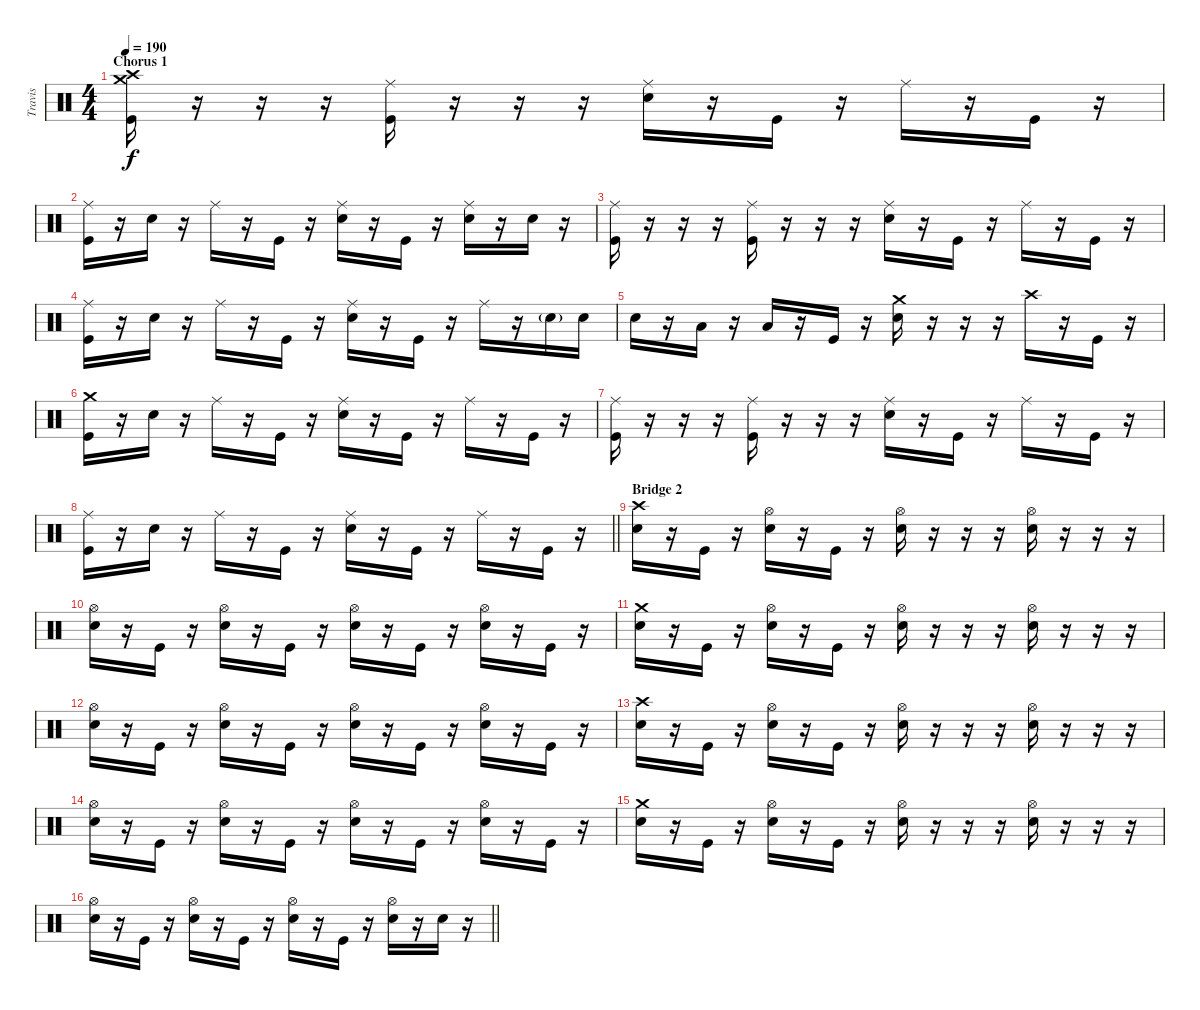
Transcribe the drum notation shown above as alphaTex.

\track ("Travis" "Travis") {instrument percussion}
\staff {score}
\articulation defaults
\ts (4 4)
\section ("" "Chorus 1")
\tempo 190
\clef neutral
\ks c
("Crash medium (hit)" "Crash high (hit)" "Kick (hit)").16{dy f} r.16 r.16 r.16 ("Ride (middle)" "Kick (hit)").16 r.16 r.16 r.16 ("Ride (middle)" "Snare (hit) 2").16 r.16 "Kick (hit)".16 r.16 "Ride (middle)".16 r.16 "Kick (hit)".16 r.16 |
("Ride (middle)" "Kick (hit)").16 r.16 "Snare (hit) 2".16 r.16 "Ride (middle)".16 r.16 "Kick (hit)".16 r.16 ("Ride (middle)" "Snare (hit) 2").16 r.16 "Kick (hit)".16 r.16 ("Ride (middle)" "Snare (hit) 2").16 r.16 "Snare (hit) 2".16 r.16 |
("Ride (middle)" "Kick (hit)").16 r.16 r.16 r.16 ("Ride (middle)" "Kick (hit)").16 r.16 r.16 r.16 ("Ride (middle)" "Snare (hit) 2").16 r.16 "Kick (hit)".16 r.16 "Ride (middle)".16 r.16 "Kick (hit)".16 r.16 |
("Ride (middle)" "Kick (hit)").16 r.16 "Snare (hit) 2".16 r.16 "Ride (middle)".16 r.16 "Kick (hit)".16 r.16 ("Ride (middle)" "Snare (hit) 2").16 r.16 "Kick (hit)".16 r.16 "Ride (middle)".16 r.16 "Snare (hit) 2"{g}.16 "Snare (hit) 2".16 |
"Snare (hit) 2".16 r.16 "Low Tom (hit)".16 r.16 "Low Floor Tom (hit)".16 r.16 "Kick (hit)".16 r.16 ("Crash medium (hit)" "Snare (hit) 2").16 r.16 r.16 r.16 "Crash high (hit)".16 r.16 "Kick (hit)".16 r.16 |
("Crash medium (hit)" "Kick (hit)").16 r.16 "Snare (hit) 2".16 r.16 "Ride (middle)".16 r.16 "Kick (hit)".16 r.16 ("Ride (middle)" "Snare (hit) 2").16 r.16 "Kick (hit)".16 r.16 "Ride (middle)".16 r.16 "Kick (hit)".16 r.16 |
("Ride (middle)" "Kick (hit)").16 r.16 r.16 r.16 ("Ride (middle)" "Kick (hit)").16 r.16 r.16 r.16 ("Ride (middle)" "Snare (hit) 2").16 r.16 "Kick (hit)".16 r.16 "Ride (middle)".16 r.16 "Kick (hit)".16 r.16 |
\barLineRight lightlight
("Ride (middle)" "Kick (hit)").16 r.16 "Snare (hit) 2".16 r.16 "Ride (middle)".16 r.16 "Kick (hit)".16 r.16 ("Ride (middle)" "Snare (hit) 2").16 r.16 "Kick (hit)".16 r.16 "Ride (middle)".16 r.16 "Kick (hit)".16 r.16 |
\section ("" "Bridge 2")
("Crash high (hit)" "Snare (hit) 2").16 r.16 "Kick (hit)".16 r.16 ("Hi-Hat (open)" "Snare (hit) 2").16 r.16 "Kick (hit)".16 r.16 ("Hi-Hat (open)" "Snare (hit) 2").16 r.16 r.16 r.16 ("Hi-Hat (open)" "Snare (hit) 2").16 r.16 r.16 r.16 |
("Hi-Hat (open)" "Snare (hit) 2").16 r.16 "Kick (hit)".16 r.16 ("Hi-Hat (open)" "Snare (hit) 2").16 r.16 "Kick (hit)".16 r.16 ("Hi-Hat (open)" "Snare (hit) 2").16 r.16 "Kick (hit)".16 r.16 ("Hi-Hat (open)" "Snare (hit) 2").16 r.16 "Kick (hit)".16 r.16 |
("Crash medium (hit)" "Snare (hit) 2").16 r.16 "Kick (hit)".16 r.16 ("Hi-Hat (open)" "Snare (hit) 2").16 r.16 "Kick (hit)".16 r.16 ("Hi-Hat (open)" "Snare (hit) 2").16 r.16 r.16 r.16 ("Hi-Hat (open)" "Snare (hit) 2").16 r.16 r.16 r.16 |
("Hi-Hat (open)" "Snare (hit) 2").16 r.16 "Kick (hit)".16 r.16 ("Hi-Hat (open)" "Snare (hit) 2").16 r.16 "Kick (hit)".16 r.16 ("Hi-Hat (open)" "Snare (hit) 2").16 r.16 "Kick (hit)".16 r.16 ("Hi-Hat (open)" "Snare (hit) 2").16 r.16 "Kick (hit)".16 r.16 |
("Crash high (hit)" "Snare (hit) 2").16 r.16 "Kick (hit)".16 r.16 ("Hi-Hat (open)" "Snare (hit) 2").16 r.16 "Kick (hit)".16 r.16 ("Hi-Hat (open)" "Snare (hit) 2").16 r.16 r.16 r.16 ("Hi-Hat (open)" "Snare (hit) 2").16 r.16 r.16 r.16 |
("Hi-Hat (open)" "Snare (hit) 2").16 r.16 "Kick (hit)".16 r.16 ("Hi-Hat (open)" "Snare (hit) 2").16 r.16 "Kick (hit)".16 r.16 ("Hi-Hat (open)" "Snare (hit) 2").16 r.16 "Kick (hit)".16 r.16 ("Hi-Hat (open)" "Snare (hit) 2").16 r.16 "Kick (hit)".16 r.16 |
("Crash medium (hit)" "Snare (hit) 2").16 r.16 "Kick (hit)".16 r.16 ("Hi-Hat (open)" "Snare (hit) 2").16 r.16 "Kick (hit)".16 r.16 ("Hi-Hat (open)" "Snare (hit) 2").16 r.16 r.16 r.16 ("Hi-Hat (open)" "Snare (hit) 2").16 r.16 r.16 r.16 |
\barLineRight lightlight
("Hi-Hat (open)" "Snare (hit) 2").16 r.16 "Kick (hit)".16 r.16 ("Hi-Hat (open)" "Snare (hit) 2").16 r.16 "Kick (hit)".16 r.16 ("Hi-Hat (open)" "Snare (hit) 2").16 r.16 "Kick (hit)".16 r.16 ("Hi-Hat (open)" "Snare (hit) 2").16 r.16 "Snare (hit) 2".16 r.16
